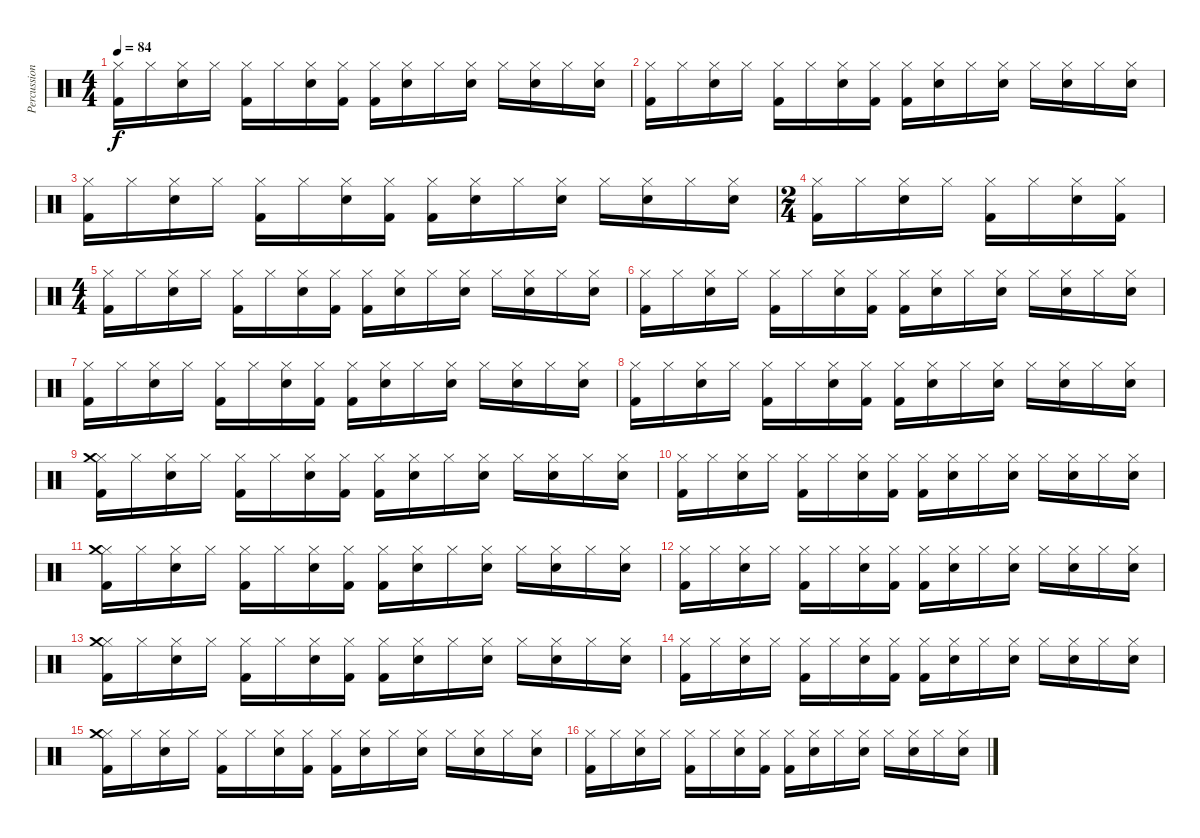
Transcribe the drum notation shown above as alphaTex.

\track ("Percussion" "Percussion") {instrument percussion}
\staff {score}
\articulation defaults
\ts (4 4)
\tempo 84
\clef neutral
\ks c
("Hi-Hat (closed)" "Kick (hit) 2").16{dy f} "Hi-Hat (closed)".16 ("Hi-Hat (closed)" "Snare (hit) 2").16 "Hi-Hat (closed)".16 ("Hi-Hat (closed)" "Kick (hit) 2").16 "Hi-Hat (closed)".16 ("Hi-Hat (closed)" "Snare (hit) 2").16 ("Hi-Hat (closed)" "Kick (hit) 2").16 ("Hi-Hat (closed)" "Kick (hit) 2").16 ("Hi-Hat (closed)" "Snare (hit) 2").16 "Hi-Hat (closed)".16 ("Hi-Hat (closed)" "Snare (hit) 2").16 "Hi-Hat (closed)".16 ("Hi-Hat (closed)" "Snare (hit) 2").16 "Hi-Hat (closed)".16 ("Hi-Hat (closed)" "Snare (hit) 2").16 |
("Hi-Hat (closed)" "Kick (hit) 2").16 "Hi-Hat (closed)".16 ("Hi-Hat (closed)" "Snare (hit) 2").16 "Hi-Hat (closed)".16 ("Hi-Hat (closed)" "Kick (hit) 2").16 "Hi-Hat (closed)".16 ("Hi-Hat (closed)" "Snare (hit) 2").16 ("Hi-Hat (closed)" "Kick (hit) 2").16 ("Hi-Hat (closed)" "Kick (hit) 2").16 ("Hi-Hat (closed)" "Snare (hit) 2").16 "Hi-Hat (closed)".16 ("Hi-Hat (closed)" "Snare (hit) 2").16 "Hi-Hat (closed)".16 ("Hi-Hat (closed)" "Snare (hit) 2").16 "Hi-Hat (closed)".16 ("Hi-Hat (closed)" "Snare (hit) 2").16 |
("Hi-Hat (closed)" "Kick (hit) 2").16 "Hi-Hat (closed)".16 ("Hi-Hat (closed)" "Snare (hit) 2").16 "Hi-Hat (closed)".16 ("Hi-Hat (closed)" "Kick (hit) 2").16 "Hi-Hat (closed)".16 ("Hi-Hat (closed)" "Snare (hit) 2").16 ("Hi-Hat (closed)" "Kick (hit) 2").16 ("Hi-Hat (closed)" "Kick (hit) 2").16 ("Hi-Hat (closed)" "Snare (hit) 2").16 "Hi-Hat (closed)".16 ("Hi-Hat (closed)" "Snare (hit) 2").16 "Hi-Hat (closed)".16 ("Hi-Hat (closed)" "Snare (hit) 2").16 "Hi-Hat (closed)".16 ("Hi-Hat (closed)" "Snare (hit) 2").16 |
\ts (2 4)
("Hi-Hat (closed)" "Kick (hit) 2").16 "Hi-Hat (closed)".16 ("Hi-Hat (closed)" "Snare (hit) 2").16 "Hi-Hat (closed)".16 ("Hi-Hat (closed)" "Kick (hit) 2").16 "Hi-Hat (closed)".16 ("Hi-Hat (closed)" "Snare (hit) 2").16 ("Hi-Hat (closed)" "Kick (hit) 2").16 |
\ts (4 4)
("Hi-Hat (closed)" "Kick (hit) 2").16 "Hi-Hat (closed)".16 ("Hi-Hat (closed)" "Snare (hit) 2").16 "Hi-Hat (closed)".16 ("Hi-Hat (closed)" "Kick (hit) 2").16 "Hi-Hat (closed)".16 ("Hi-Hat (closed)" "Snare (hit) 2").16 ("Hi-Hat (closed)" "Kick (hit) 2").16 ("Hi-Hat (closed)" "Kick (hit) 2").16 ("Hi-Hat (closed)" "Snare (hit) 2").16 "Hi-Hat (closed)".16 ("Hi-Hat (closed)" "Snare (hit) 2").16 "Hi-Hat (closed)".16 ("Hi-Hat (closed)" "Snare (hit) 2").16 "Hi-Hat (closed)".16 ("Hi-Hat (closed)" "Snare (hit) 2").16 |
("Hi-Hat (closed)" "Kick (hit) 2").16 "Hi-Hat (closed)".16 ("Hi-Hat (closed)" "Snare (hit) 2").16 "Hi-Hat (closed)".16 ("Hi-Hat (closed)" "Kick (hit) 2").16 "Hi-Hat (closed)".16 ("Hi-Hat (closed)" "Snare (hit) 2").16 ("Hi-Hat (closed)" "Kick (hit) 2").16 ("Hi-Hat (closed)" "Kick (hit) 2").16 ("Hi-Hat (closed)" "Snare (hit) 2").16 "Hi-Hat (closed)".16 ("Hi-Hat (closed)" "Snare (hit) 2").16 "Hi-Hat (closed)".16 ("Hi-Hat (closed)" "Snare (hit) 2").16 "Hi-Hat (closed)".16 ("Hi-Hat (closed)" "Snare (hit) 2").16 |
("Hi-Hat (closed)" "Kick (hit) 2").16 "Hi-Hat (closed)".16 ("Hi-Hat (closed)" "Snare (hit) 2").16 "Hi-Hat (closed)".16 ("Hi-Hat (closed)" "Kick (hit) 2").16 "Hi-Hat (closed)".16 ("Hi-Hat (closed)" "Snare (hit) 2").16 ("Hi-Hat (closed)" "Kick (hit) 2").16 ("Hi-Hat (closed)" "Kick (hit) 2").16 ("Hi-Hat (closed)" "Snare (hit) 2").16 "Hi-Hat (closed)".16 ("Hi-Hat (closed)" "Snare (hit) 2").16 "Hi-Hat (closed)".16 ("Hi-Hat (closed)" "Snare (hit) 2").16 "Hi-Hat (closed)".16 ("Hi-Hat (closed)" "Snare (hit) 2").16 |
("Hi-Hat (closed)" "Kick (hit) 2").16 "Hi-Hat (closed)".16 ("Hi-Hat (closed)" "Snare (hit) 2").16 "Hi-Hat (closed)".16 ("Hi-Hat (closed)" "Kick (hit) 2").16 "Hi-Hat (closed)".16 ("Hi-Hat (closed)" "Snare (hit) 2").16 ("Hi-Hat (closed)" "Kick (hit) 2").16 ("Hi-Hat (closed)" "Kick (hit) 2").16 ("Hi-Hat (closed)" "Snare (hit) 2").16 "Hi-Hat (closed)".16 ("Hi-Hat (closed)" "Snare (hit) 2").16 "Hi-Hat (closed)".16 ("Hi-Hat (closed)" "Snare (hit) 2").16 "Hi-Hat (closed)".16 ("Hi-Hat (closed)" "Snare (hit) 2").16 |
("Hi-Hat (closed)" "Crash medium (hit)" "Kick (hit) 2").16 "Hi-Hat (closed)".16 ("Hi-Hat (closed)" "Snare (hit) 2").16 "Hi-Hat (closed)".16 ("Hi-Hat (closed)" "Kick (hit) 2").16 "Hi-Hat (closed)".16 ("Hi-Hat (closed)" "Snare (hit) 2").16 ("Hi-Hat (closed)" "Kick (hit) 2").16 ("Hi-Hat (closed)" "Kick (hit) 2").16 ("Hi-Hat (closed)" "Snare (hit) 2").16 "Hi-Hat (closed)".16 ("Hi-Hat (closed)" "Snare (hit) 2").16 "Hi-Hat (closed)".16 ("Hi-Hat (closed)" "Snare (hit) 2").16 "Hi-Hat (closed)".16 ("Hi-Hat (closed)" "Snare (hit) 2").16 |
("Hi-Hat (closed)" "Kick (hit) 2").16 "Hi-Hat (closed)".16 ("Hi-Hat (closed)" "Snare (hit) 2").16 "Hi-Hat (closed)".16 ("Hi-Hat (closed)" "Kick (hit) 2").16 "Hi-Hat (closed)".16 ("Hi-Hat (closed)" "Snare (hit) 2").16 ("Hi-Hat (closed)" "Kick (hit) 2").16 ("Hi-Hat (closed)" "Kick (hit) 2").16 ("Hi-Hat (closed)" "Snare (hit) 2").16 "Hi-Hat (closed)".16 ("Hi-Hat (closed)" "Snare (hit) 2").16 "Hi-Hat (closed)".16 ("Hi-Hat (closed)" "Snare (hit) 2").16 "Hi-Hat (closed)".16 ("Hi-Hat (closed)" "Snare (hit) 2").16 |
("Hi-Hat (closed)" "Crash medium (hit)" "Kick (hit) 2").16 "Hi-Hat (closed)".16 ("Hi-Hat (closed)" "Snare (hit) 2").16 "Hi-Hat (closed)".16 ("Hi-Hat (closed)" "Kick (hit) 2").16 "Hi-Hat (closed)".16 ("Hi-Hat (closed)" "Snare (hit) 2").16 ("Hi-Hat (closed)" "Kick (hit) 2").16 ("Hi-Hat (closed)" "Kick (hit) 2").16 ("Hi-Hat (closed)" "Snare (hit) 2").16 "Hi-Hat (closed)".16 ("Hi-Hat (closed)" "Snare (hit) 2").16 "Hi-Hat (closed)".16 ("Hi-Hat (closed)" "Snare (hit) 2").16 "Hi-Hat (closed)".16 ("Hi-Hat (closed)" "Snare (hit) 2").16 |
("Hi-Hat (closed)" "Kick (hit) 2").16 "Hi-Hat (closed)".16 ("Hi-Hat (closed)" "Snare (hit) 2").16 "Hi-Hat (closed)".16 ("Hi-Hat (closed)" "Kick (hit) 2").16 "Hi-Hat (closed)".16 ("Hi-Hat (closed)" "Snare (hit) 2").16 ("Hi-Hat (closed)" "Kick (hit) 2").16 ("Hi-Hat (closed)" "Kick (hit) 2").16 ("Hi-Hat (closed)" "Snare (hit) 2").16 "Hi-Hat (closed)".16 ("Hi-Hat (closed)" "Snare (hit) 2").16 "Hi-Hat (closed)".16 ("Hi-Hat (closed)" "Snare (hit) 2").16 "Hi-Hat (closed)".16 ("Hi-Hat (closed)" "Snare (hit) 2").16 |
("Hi-Hat (closed)" "Crash medium (hit)" "Kick (hit) 2").16 "Hi-Hat (closed)".16 ("Hi-Hat (closed)" "Snare (hit) 2").16 "Hi-Hat (closed)".16 ("Hi-Hat (closed)" "Kick (hit) 2").16 "Hi-Hat (closed)".16 ("Hi-Hat (closed)" "Snare (hit) 2").16 ("Hi-Hat (closed)" "Kick (hit) 2").16 ("Hi-Hat (closed)" "Kick (hit) 2").16 ("Hi-Hat (closed)" "Snare (hit) 2").16 "Hi-Hat (closed)".16 ("Hi-Hat (closed)" "Snare (hit) 2").16 "Hi-Hat (closed)".16 ("Hi-Hat (closed)" "Snare (hit) 2").16 "Hi-Hat (closed)".16 ("Hi-Hat (closed)" "Snare (hit) 2").16 |
("Hi-Hat (closed)" "Kick (hit) 2").16 "Hi-Hat (closed)".16 ("Hi-Hat (closed)" "Snare (hit) 2").16 "Hi-Hat (closed)".16 ("Hi-Hat (closed)" "Kick (hit) 2").16 "Hi-Hat (closed)".16 ("Hi-Hat (closed)" "Snare (hit) 2").16 ("Hi-Hat (closed)" "Kick (hit) 2").16 ("Hi-Hat (closed)" "Kick (hit) 2").16 ("Hi-Hat (closed)" "Snare (hit) 2").16 "Hi-Hat (closed)".16 ("Hi-Hat (closed)" "Snare (hit) 2").16 "Hi-Hat (closed)".16 ("Hi-Hat (closed)" "Snare (hit) 2").16 "Hi-Hat (closed)".16 ("Hi-Hat (closed)" "Snare (hit) 2").16 |
("Hi-Hat (closed)" "Crash medium (hit)" "Kick (hit) 2").16 "Hi-Hat (closed)".16 ("Hi-Hat (closed)" "Snare (hit) 2").16 "Hi-Hat (closed)".16 ("Hi-Hat (closed)" "Kick (hit) 2").16 "Hi-Hat (closed)".16 ("Hi-Hat (closed)" "Snare (hit) 2").16 ("Hi-Hat (closed)" "Kick (hit) 2").16 ("Hi-Hat (closed)" "Kick (hit) 2").16 ("Hi-Hat (closed)" "Snare (hit) 2").16 "Hi-Hat (closed)".16 ("Hi-Hat (closed)" "Snare (hit) 2").16 "Hi-Hat (closed)".16 ("Hi-Hat (closed)" "Snare (hit) 2").16 "Hi-Hat (closed)".16 ("Hi-Hat (closed)" "Snare (hit) 2").16 |
("Hi-Hat (closed)" "Kick (hit) 2").16 "Hi-Hat (closed)".16 ("Hi-Hat (closed)" "Snare (hit) 2").16 "Hi-Hat (closed)".16 ("Hi-Hat (closed)" "Kick (hit) 2").16 "Hi-Hat (closed)".16 ("Hi-Hat (closed)" "Snare (hit) 2").16 ("Hi-Hat (closed)" "Kick (hit) 2").16 ("Hi-Hat (closed)" "Kick (hit) 2").16 ("Hi-Hat (closed)" "Snare (hit) 2").16 "Hi-Hat (closed)".16 ("Hi-Hat (closed)" "Snare (hit) 2").16 "Hi-Hat (closed)".16 ("Hi-Hat (closed)" "Snare (hit) 2").16 "Hi-Hat (closed)".16 ("Hi-Hat (closed)" "Snare (hit) 2").16
